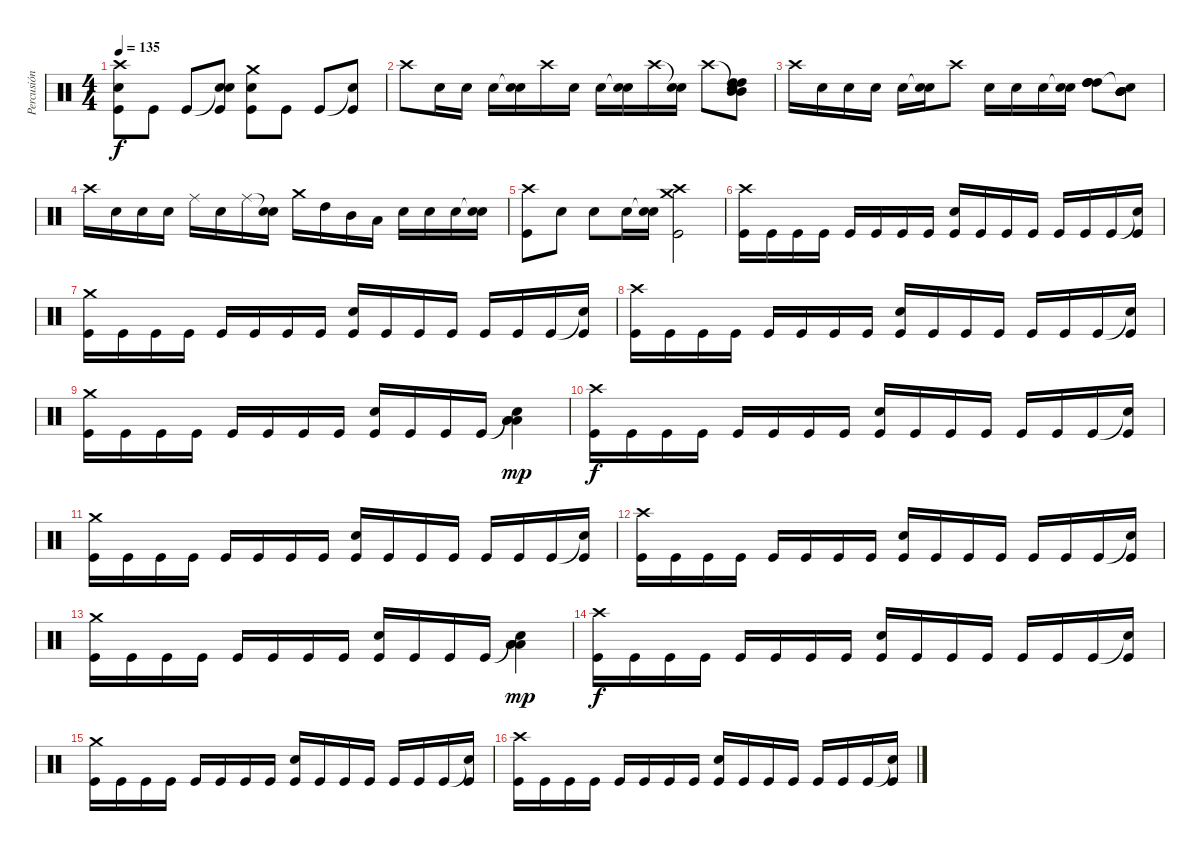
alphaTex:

\track ("Percusión" "Percusión") {instrument percussion}
\staff {score}
\articulation defaults
\ts (4 4)
\tempo 135
\clef neutral
\ks c
("Crash high (hit)" "Snare (hit) 2" "Kick (hit)").8{dy f} "Kick (hit)".8 "Kick (hit)".8 ("Snare (hit)"{t} "Snare (hit) 2" "Kick (hit)").8 ("Crash medium (hit)" "Snare (hit) 2" "Kick (hit)").8 "Kick (hit)".8 "Kick (hit)".8 ("Snare (hit)"{t} "Kick (hit)").8 |
"Crash high (hit)".8 "Snare (hit) 2".16 "Snare (hit) 2".16 "Snare (hit) 2".16 ("Snare (hit)"{t} "Snare (hit) 2").16 "Crash high (hit)".16 "Snare (hit) 2".16 "Snare (hit) 2".16 ("Snare (hit)"{t} "Snare (hit) 2").16 "Crash high (hit)".16 ("Snare (hit)"{t} "Snare (hit) 2").16 "Crash high (hit)".8 ("Snare (hit)"{t} "High Tom (hit)" "High Tom (hit)" "Mid Tom (hit)" "Mid Tom (hit)").8 |
"Crash high (hit)".16 "Snare (hit) 2".16 "Snare (hit) 2".16 "Snare (hit) 2".16 "Snare (hit) 2".16 ("Snare (hit)"{t} "Snare (hit) 2").16 "Crash high (hit)".8 "Snare (hit) 2".16 "Snare (hit) 2".16 "Snare (hit) 2".16 ("Snare (hit)"{t} "Snare (hit) 2").16 ("High Tom (hit)" "High Tom (hit)" "High Tom (hit)" "High Tom (hit)").8 ("Snare (hit)"{t} "Mid Tom (hit)" "Mid Tom (hit)" "Mid Tom (hit)" "Mid Tom (hit)").8 |
"Crash high (hit)".16 "Snare (hit) 2".16 "Snare (hit) 2".16 "Snare (hit) 2".16 "Ride (middle)".16 "Snare (hit) 2".16 "Ride (middle)".16 ("Snare (hit)"{t} "Snare (hit) 2").16 "Crash medium (hit)".16 "High Tom (hit)".16 "Mid Tom (hit)".16 "Low Tom (hit)".16 "Snare (hit) 2".16 "Snare (hit) 2".16 "Snare (hit) 2".16 ("Snare (hit)"{t} "Snare (hit) 2").16 |
("Crash high (hit)" "Kick (hit)").8 "Snare (hit) 2".8 "Snare (hit) 2".8 "Snare (hit) 2".16 ("Snare (hit)"{t} "Snare (hit) 2").16 ("Crash high (hit)" "Crash medium (hit)" "Kick (hit)").2 |
("Crash high (hit)" "Kick (hit)").16 "Kick (hit)".16 "Kick (hit)".16 "Kick (hit)".16 "Kick (hit)".16 "Kick (hit)".16 "Kick (hit)".16 "Kick (hit)".16 ("Snare (hit) 2" "Kick (hit)").16 "Kick (hit)".16 "Kick (hit)".16 "Kick (hit)".16 "Kick (hit)".16 "Kick (hit)".16 "Kick (hit)".16 ("Snare (hit)"{t} "Kick (hit)").16 |
("Crash medium (hit)" "Kick (hit)").16 "Kick (hit)".16 "Kick (hit)".16 "Kick (hit)".16 "Kick (hit)".16 "Kick (hit)".16 "Kick (hit)".16 "Kick (hit)".16 ("Snare (hit) 2" "Kick (hit)").16 "Kick (hit)".16 "Kick (hit)".16 "Kick (hit)".16 "Kick (hit)".16 "Kick (hit)".16 "Kick (hit)".16 ("Snare (hit)"{t} "Kick (hit)").16 |
("Crash high (hit)" "Kick (hit)").16 "Kick (hit)".16 "Kick (hit)".16 "Kick (hit)".16 "Kick (hit)".16 "Kick (hit)".16 "Kick (hit)".16 "Kick (hit)".16 ("Snare (hit) 2" "Kick (hit)").16 "Kick (hit)".16 "Kick (hit)".16 "Kick (hit)".16 "Kick (hit)".16 "Kick (hit)".16 "Kick (hit)".16 ("Snare (hit)"{t} "Kick (hit)").16 |
("Crash medium (hit)" "Kick (hit)").16 "Kick (hit)".16 "Kick (hit)".16 "Kick (hit)".16 "Kick (hit)".16 "Kick (hit)".16 "Kick (hit)".16 "Kick (hit)".16 ("Snare (hit) 2" "Kick (hit)").16 "Kick (hit)".16 "Kick (hit)".16 "Kick (hit)".16 ("Snare (hit)"{t} "Low Tom (hit)" "Low Tom (hit)" "Low Tom (hit)").4{dy mp} |
("Crash high (hit)" "Kick (hit)").16{dy f} "Kick (hit)".16 "Kick (hit)".16 "Kick (hit)".16 "Kick (hit)".16 "Kick (hit)".16 "Kick (hit)".16 "Kick (hit)".16 ("Snare (hit) 2" "Kick (hit)").16 "Kick (hit)".16 "Kick (hit)".16 "Kick (hit)".16 "Kick (hit)".16 "Kick (hit)".16 "Kick (hit)".16 ("Snare (hit)"{t} "Kick (hit)").16 |
("Crash medium (hit)" "Kick (hit)").16 "Kick (hit)".16 "Kick (hit)".16 "Kick (hit)".16 "Kick (hit)".16 "Kick (hit)".16 "Kick (hit)".16 "Kick (hit)".16 ("Snare (hit) 2" "Kick (hit)").16 "Kick (hit)".16 "Kick (hit)".16 "Kick (hit)".16 "Kick (hit)".16 "Kick (hit)".16 "Kick (hit)".16 ("Snare (hit)"{t} "Kick (hit)").16 |
("Crash high (hit)" "Kick (hit)").16 "Kick (hit)".16 "Kick (hit)".16 "Kick (hit)".16 "Kick (hit)".16 "Kick (hit)".16 "Kick (hit)".16 "Kick (hit)".16 ("Snare (hit) 2" "Kick (hit)").16 "Kick (hit)".16 "Kick (hit)".16 "Kick (hit)".16 "Kick (hit)".16 "Kick (hit)".16 "Kick (hit)".16 ("Snare (hit)"{t} "Kick (hit)").16 |
("Crash medium (hit)" "Kick (hit)").16 "Kick (hit)".16 "Kick (hit)".16 "Kick (hit)".16 "Kick (hit)".16 "Kick (hit)".16 "Kick (hit)".16 "Kick (hit)".16 ("Snare (hit) 2" "Kick (hit)").16 "Kick (hit)".16 "Kick (hit)".16 "Kick (hit)".16 ("Snare (hit)"{t} "Low Tom (hit)" "Low Tom (hit)" "Low Tom (hit)").4{dy mp} |
("Crash high (hit)" "Kick (hit)").16{dy f} "Kick (hit)".16 "Kick (hit)".16 "Kick (hit)".16 "Kick (hit)".16 "Kick (hit)".16 "Kick (hit)".16 "Kick (hit)".16 ("Snare (hit) 2" "Kick (hit)").16 "Kick (hit)".16 "Kick (hit)".16 "Kick (hit)".16 "Kick (hit)".16 "Kick (hit)".16 "Kick (hit)".16 ("Snare (hit)"{t} "Kick (hit)").16 |
("Crash medium (hit)" "Kick (hit)").16 "Kick (hit)".16 "Kick (hit)".16 "Kick (hit)".16 "Kick (hit)".16 "Kick (hit)".16 "Kick (hit)".16 "Kick (hit)".16 ("Snare (hit) 2" "Kick (hit)").16 "Kick (hit)".16 "Kick (hit)".16 "Kick (hit)".16 "Kick (hit)".16 "Kick (hit)".16 "Kick (hit)".16 ("Snare (hit)"{t} "Kick (hit)").16 |
("Crash high (hit)" "Kick (hit)").16 "Kick (hit)".16 "Kick (hit)".16 "Kick (hit)".16 "Kick (hit)".16 "Kick (hit)".16 "Kick (hit)".16 "Kick (hit)".16 ("Snare (hit) 2" "Kick (hit)").16 "Kick (hit)".16 "Kick (hit)".16 "Kick (hit)".16 "Kick (hit)".16 "Kick (hit)".16 "Kick (hit)".16 ("Snare (hit)"{t} "Kick (hit)").16
